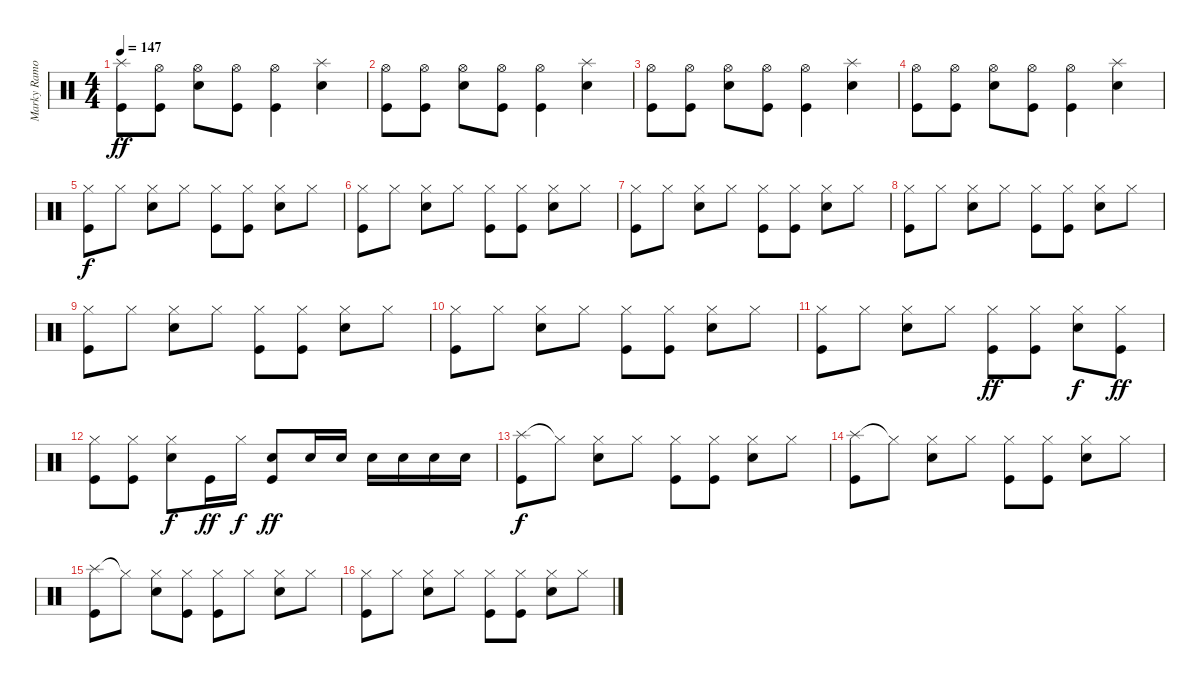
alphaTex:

\track ("Marky Ramone - Drums" "Marky Ramo") {instrument percussion}
\staff {score}
\articulation defaults
\ts (4 4)
\tempo 147
\clef neutral
\ks c
("Splash (hit)" "Kick (hit)").8{dy ff} ("Hi-Hat (open)" "Kick (hit)").8 ("Hi-Hat (open)" "Snare (hit) 2").8 ("Hi-Hat (open)" "Kick (hit)").8 ("Hi-Hat (open)" "Kick (hit)").4 ("Splash (hit)" "Snare (hit) 2").4 |
("Hi-Hat (open)" "Kick (hit)").8 ("Hi-Hat (open)" "Kick (hit)").8 ("Hi-Hat (open)" "Snare (hit) 2").8 ("Hi-Hat (open)" "Kick (hit)").8 ("Hi-Hat (open)" "Kick (hit)").4 ("Splash (hit)" "Snare (hit) 2").4 |
("Hi-Hat (open)" "Kick (hit)").8 ("Hi-Hat (open)" "Kick (hit)").8 ("Hi-Hat (open)" "Snare (hit) 2").8 ("Hi-Hat (open)" "Kick (hit)").8 ("Hi-Hat (open)" "Kick (hit)").4 ("Splash (hit)" "Snare (hit) 2").4 |
("Hi-Hat (open)" "Kick (hit)").8 ("Hi-Hat (open)" "Kick (hit)").8 ("Hi-Hat (open)" "Snare (hit) 2").8 ("Hi-Hat (open)" "Kick (hit)").8 ("Hi-Hat (open)" "Kick (hit)").4 ("Splash (hit)" "Snare (hit) 2").4 |
("Hi-Hat (closed)" "Kick (hit)").8{dy f} "Hi-Hat (closed)".8 ("Hi-Hat (closed)" "Snare (hit) 2").8 "Hi-Hat (closed)".8 ("Hi-Hat (closed)" "Kick (hit)").8 ("Hi-Hat (closed)" "Kick (hit)").8 ("Hi-Hat (closed)" "Snare (hit) 2").8 "Hi-Hat (closed)".8 |
("Hi-Hat (closed)" "Kick (hit)").8 "Hi-Hat (closed)".8 ("Hi-Hat (closed)" "Snare (hit) 2").8 "Hi-Hat (closed)".8 ("Hi-Hat (closed)" "Kick (hit)").8 ("Hi-Hat (closed)" "Kick (hit)").8 ("Hi-Hat (closed)" "Snare (hit) 2").8 "Hi-Hat (closed)".8 |
("Hi-Hat (closed)" "Kick (hit)").8 "Hi-Hat (closed)".8 ("Hi-Hat (closed)" "Snare (hit) 2").8 "Hi-Hat (closed)".8 ("Hi-Hat (closed)" "Kick (hit)").8 ("Hi-Hat (closed)" "Kick (hit)").8 ("Hi-Hat (closed)" "Snare (hit) 2").8 "Hi-Hat (closed)".8 |
("Hi-Hat (closed)" "Kick (hit)").8 "Hi-Hat (closed)".8 ("Hi-Hat (closed)" "Snare (hit) 2").8 "Hi-Hat (closed)".8 ("Hi-Hat (closed)" "Kick (hit)").8 ("Hi-Hat (closed)" "Kick (hit)").8 ("Hi-Hat (closed)" "Snare (hit) 2").8 "Hi-Hat (closed)".8 |
("Hi-Hat (closed)" "Kick (hit)").8 "Hi-Hat (closed)".8 ("Hi-Hat (closed)" "Snare (hit) 2").8 "Hi-Hat (closed)".8 ("Hi-Hat (closed)" "Kick (hit)").8 ("Hi-Hat (closed)" "Kick (hit)").8 ("Hi-Hat (closed)" "Snare (hit) 2").8 "Hi-Hat (closed)".8 |
("Hi-Hat (closed)" "Kick (hit)").8 "Hi-Hat (closed)".8 ("Hi-Hat (closed)" "Snare (hit) 2").8 "Hi-Hat (closed)".8 ("Hi-Hat (closed)" "Kick (hit)").8 ("Hi-Hat (closed)" "Kick (hit)").8 ("Hi-Hat (closed)" "Snare (hit) 2").8 "Hi-Hat (closed)".8 |
("Hi-Hat (closed)" "Kick (hit)").8 "Hi-Hat (closed)".8 ("Hi-Hat (closed)" "Snare (hit) 2").8 "Hi-Hat (closed)".8 ("Hi-Hat (closed)" "Kick (hit)").8{dy ff} ("Hi-Hat (closed)" "Kick (hit)").8 ("Hi-Hat (closed)" "Snare (hit) 2").8{dy f} ("Hi-Hat (closed)" "Kick (hit)").8{dy ff} |
("Hi-Hat (closed)" "Kick (hit)").8 ("Hi-Hat (closed)" "Kick (hit)").8 ("Hi-Hat (closed)" "Snare (hit) 2").8{dy f} "Kick (hit)".16{dy ff} "Hi-Hat (closed)".16{dy f} ("Snare (hit) 2" "Kick (hit)").8{dy ff} "Snare (hit) 2".16 "Snare (hit) 2".16 "Snare (hit) 2".16 "Snare (hit) 2".16 "Snare (hit) 2".16 "Snare (hit) 2".16 |
("Splash (hit)" "Kick (hit)").8{dy f} "Hi-Hat (closed)"{t}.8 ("Hi-Hat (closed)" "Snare (hit) 2").8 "Hi-Hat (closed)".8 ("Hi-Hat (closed)" "Kick (hit)").8 ("Hi-Hat (closed)" "Kick (hit)").8 ("Hi-Hat (closed)" "Snare (hit) 2").8 "Hi-Hat (closed)".8 |
("Splash (hit)" "Kick (hit)").8 "Hi-Hat (closed)"{t}.8 ("Hi-Hat (closed)" "Snare (hit) 2").8 "Hi-Hat (closed)".8 ("Hi-Hat (closed)" "Kick (hit)").8 ("Hi-Hat (closed)" "Kick (hit)").8 ("Hi-Hat (closed)" "Snare (hit) 2").8 "Hi-Hat (closed)".8 |
("Splash (hit)" "Kick (hit)").8 "Hi-Hat (closed)"{t}.8 ("Hi-Hat (closed)" "Snare (hit) 2").8 ("Hi-Hat (closed)" "Kick (hit)").8 ("Hi-Hat (closed)" "Kick (hit)").8 "Hi-Hat (closed)".8 ("Hi-Hat (closed)" "Snare (hit) 2").8 "Hi-Hat (closed)".8 |
("Hi-Hat (closed)" "Kick (hit)").8 "Hi-Hat (closed)".8 ("Hi-Hat (closed)" "Snare (hit) 2").8 "Hi-Hat (closed)".8 ("Hi-Hat (closed)" "Kick (hit)").8 ("Hi-Hat (closed)" "Kick (hit)").8 ("Hi-Hat (closed)" "Snare (hit) 2").8 "Hi-Hat (closed)".8
